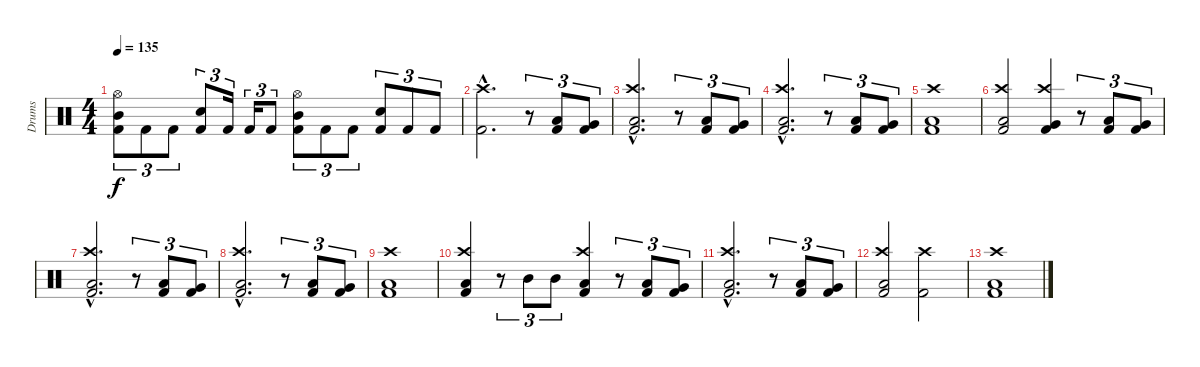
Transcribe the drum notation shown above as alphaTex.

\track ("Drums" "Drums") {instrument percussion}
\staff {score}
\articulation defaults
\ts (4 4)
\tempo 135
\clef neutral
\ks c
("Hi-Hat (open)" "Mid Tom (hit)" "Kick (hit) 2").8{tu (3 2) dy f} "Kick (hit) 2".8{tu (3 2)} "Kick (hit) 2".8{tu (3 2)} ("Snare (hit) 2" "Kick (hit) 2").8{tu (3 2)} "Kick (hit) 2".16{tu (3 2)} "Kick (hit) 2".16{tu (3 2)} "Kick (hit) 2".8{tu (3 2)} ("Hi-Hat (open)" "Mid Tom (hit)" "Kick (hit) 2").8{tu (3 2)} "Kick (hit) 2".8{tu (3 2)} "Kick (hit) 2".8{tu (3 2)} ("Snare (hit) 2" "Kick (hit) 2").8{tu (3 2)} "Kick (hit) 2".8{tu (3 2)} "Kick (hit) 2".8{tu (3 2)} |
("Crash high (hit)"{hac} "Kick (hit) 2"{hac}).2{d} r.8{tu (3 2)} ("Low Tom (hit)" "Kick (hit) 2").8{tu (3 2)} ("Very Low Tom (hit)" "Kick (hit) 2").8{tu (3 2)} |
("Crash high (hit)"{hac} "Low Floor Tom (hit)"{hac} "Kick (hit) 2"{hac}).2{d} r.8{tu (3 2)} ("Low Tom (hit)" "Kick (hit) 2").8{tu (3 2)} ("Very Low Tom (hit)" "Kick (hit) 2").8{tu (3 2)} |
("Crash high (hit)"{hac} "Low Floor Tom (hit)"{hac} "Kick (hit) 2"{hac}).2{d} r.8{tu (3 2)} ("Low Tom (hit)" "Kick (hit) 2").8{tu (3 2)} ("Very Low Tom (hit)" "Kick (hit) 2").8{tu (3 2)} |
("Crash high (hit)" "Low Floor Tom (hit)" "Kick (hit) 2").1 |
("Crash high (hit)" "Low Floor Tom (hit)" "Kick (hit) 2").2 ("Crash high (hit)" "Very Low Tom (hit)" "Kick (hit) 2").4 r.8{tu (3 2)} ("Low Tom (hit)" "Kick (hit) 2").8{tu (3 2)} ("Very Low Tom (hit)" "Kick (hit) 2").8{tu (3 2)} |
("Crash high (hit)"{hac} "Low Floor Tom (hit)"{hac} "Kick (hit) 2"{hac}).2{d} r.8{tu (3 2)} ("Low Tom (hit)" "Kick (hit) 2").8{tu (3 2)} ("Very Low Tom (hit)" "Kick (hit) 2").8{tu (3 2)} |
("Crash high (hit)"{hac} "Low Floor Tom (hit)"{hac} "Kick (hit) 2"{hac}).2{d} r.8{tu (3 2)} ("Low Tom (hit)" "Kick (hit) 2").8{tu (3 2)} ("Very Low Tom (hit)" "Kick (hit) 2").8{tu (3 2)} |
("Crash high (hit)" "Low Floor Tom (hit)" "Kick (hit) 2").1 |
("Crash high (hit)" "Low Floor Tom (hit)" "Kick (hit) 2").4 r.8{tu (3 2)} "Mid Tom (hit)".8{tu (3 2)} "Mid Tom (hit)".8{tu (3 2)} ("Crash high (hit)" "Low Tom (hit)" "Kick (hit) 2").4 r.8{tu (3 2)} ("Low Tom (hit)" "Kick (hit) 2").8{tu (3 2)} ("Very Low Tom (hit)" "Kick (hit) 2").8{tu (3 2)} |
("Crash high (hit)"{hac} "Low Floor Tom (hit)"{hac} "Kick (hit) 2"{hac}).2{d} r.8{tu (3 2)} ("Low Tom (hit)" "Kick (hit) 2").8{tu (3 2)} ("Very Low Tom (hit)" "Kick (hit) 2").8{tu (3 2)} |
("Crash high (hit)" "Low Floor Tom (hit)" "Kick (hit) 2").2 ("Crash high (hit)" "Kick (hit) 2").2 |
("Crash high (hit)" "Low Floor Tom (hit)" "Kick (hit) 2").1
